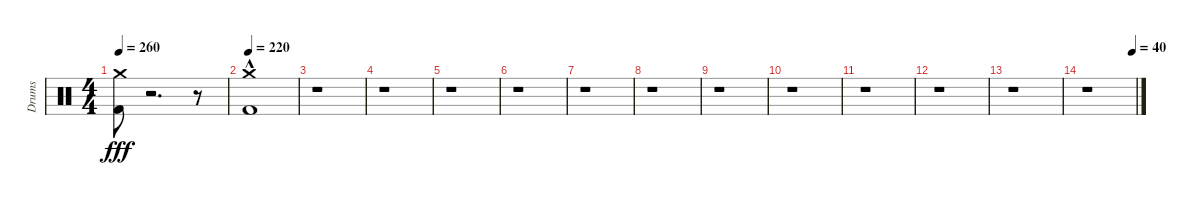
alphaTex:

\track ("Drums" "Drums") {instrument percussion}
\staff {score}
\articulation defaults
\ts (4 4)
\tempo 260
\clef neutral
\ks c
("Kick (hit) 2" "Crash medium (hit)").8{dy fff} r.2{d} r.8 |
\tempo 220
("Kick (hit) 2"{hac} "Crash medium (hit)").1 |
r.1 |
r.1 |
r.1 |
r.1 |
r.1 |
r.1 |
r.1 |
r.1 |
r.1 |
r.1 |
r.1 |
\tempo (40 0.9375)
r.1
